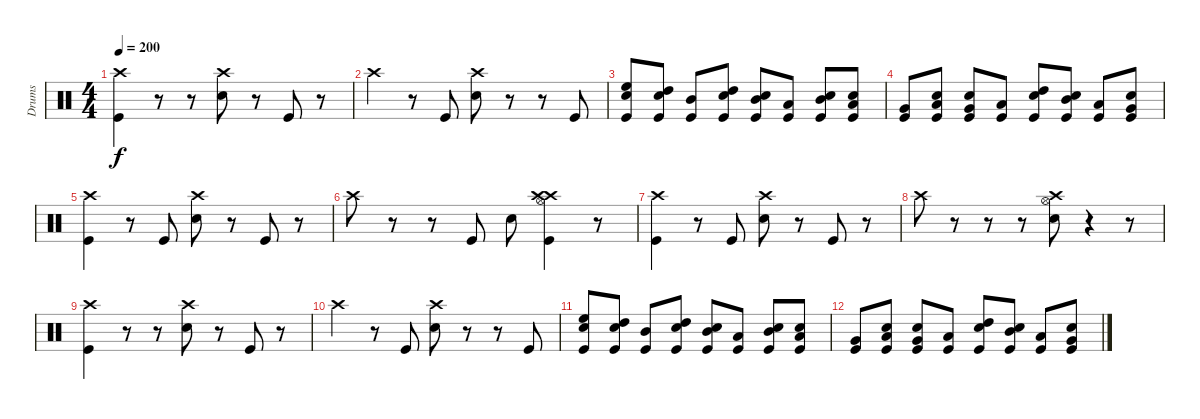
\track ("Drums" "Drums") {instrument percussion}
\staff {score}
\articulation defaults
\ts (4 4)
\tempo 200
\clef neutral
\ks c
("Crash high (hit)" "Kick (hit)").4{dy f} r.8 r.8 ("Crash high (hit)" "Snare (hit) 2").8 r.8 "Kick (hit)".8 r.8 |
"Crash high (hit)".4 r.8 "Kick (hit)".8 ("Crash high (hit)" "Snare (hit) 2").8 r.8 r.8 "Kick (hit)".8 |
("Snare (hit) 2" "High Floor Tom (hit)" "Kick (hit)").8 ("Snare (hit) 2" "High Tom (hit)" "Kick (hit)").8 ("Mid Tom (hit)" "Kick (hit)").8 ("Snare (hit) 2" "High Tom (hit)" "Kick (hit)").8 ("Snare (hit) 2" "Mid Tom (hit)" "Kick (hit)").8 ("Low Tom (hit)" "Kick (hit)").8 ("Snare (hit) 2" "Mid Tom (hit)" "Kick (hit)").8 ("Snare (hit) 2" "Low Tom (hit)" "Kick (hit)").8 |
("Very Low Tom (hit)" "Kick (hit)").8 ("Snare (hit) 2" "Low Tom (hit)" "Kick (hit)").8 ("Snare (hit) 2" "Very Low Tom (hit)" "Kick (hit)").8 ("Low Floor Tom (hit)" "Kick (hit)").8 ("Snare (hit) 2" "High Tom (hit)" "Kick (hit)").8 ("Snare (hit) 2" "Mid Tom (hit)" "Kick (hit)").8 ("Low Tom (hit)" "Kick (hit)").8 ("Snare (hit) 2" "Very Low Tom (hit)" "Kick (hit)").8 |
("Crash high (hit)" "Kick (hit)").4 r.8 "Kick (hit)".8 ("Crash high (hit)" "Snare (hit) 2").8 r.8 "Kick (hit)".8 r.8 |
"Crash high (hit)".8 r.8 r.8 "Kick (hit)".8 "Snare (hit) 2".8 ("Crash high (hit)" "Hi-Hat (open)" "Crash high (hit)" "Kick (hit)").4 r.8 |
("Crash high (hit)" "Kick (hit)").4 r.8 "Kick (hit)".8 ("Crash high (hit)" "Snare (hit) 2").8 r.8 "Kick (hit)".8 r.8 |
"Crash high (hit)".8 r.8 r.8 r.8 ("Crash high (hit)" "Snare (hit) 2" "Hi-Hat (open)").8 r.4 r.8 |
("Crash high (hit)" "Kick (hit)").4 r.8 r.8 ("Crash high (hit)" "Snare (hit) 2").8 r.8 "Kick (hit)".8 r.8 |
"Crash high (hit)".4 r.8 "Kick (hit)".8 ("Crash high (hit)" "Snare (hit) 2").8 r.8 r.8 "Kick (hit)".8 |
("Snare (hit) 2" "High Floor Tom (hit)" "Kick (hit)").8 ("Snare (hit) 2" "High Tom (hit)" "Kick (hit)").8 ("Mid Tom (hit)" "Kick (hit)").8 ("Snare (hit) 2" "High Tom (hit)" "Kick (hit)").8 ("Snare (hit) 2" "Mid Tom (hit)" "Kick (hit)").8 ("Low Tom (hit)" "Kick (hit)").8 ("Snare (hit) 2" "Mid Tom (hit)" "Kick (hit)").8 ("Snare (hit) 2" "Low Tom (hit)" "Kick (hit)").8 |
("Very Low Tom (hit)" "Kick (hit)").8 ("Snare (hit) 2" "Low Tom (hit)" "Kick (hit)").8 ("Snare (hit) 2" "Very Low Tom (hit)" "Kick (hit)").8 ("Low Floor Tom (hit)" "Kick (hit)").8 ("Snare (hit) 2" "High Tom (hit)" "Kick (hit)").8 ("Snare (hit) 2" "Mid Tom (hit)" "Kick (hit)").8 ("Low Tom (hit)" "Kick (hit)").8 ("Snare (hit) 2" "Very Low Tom (hit)" "Kick (hit)").8
